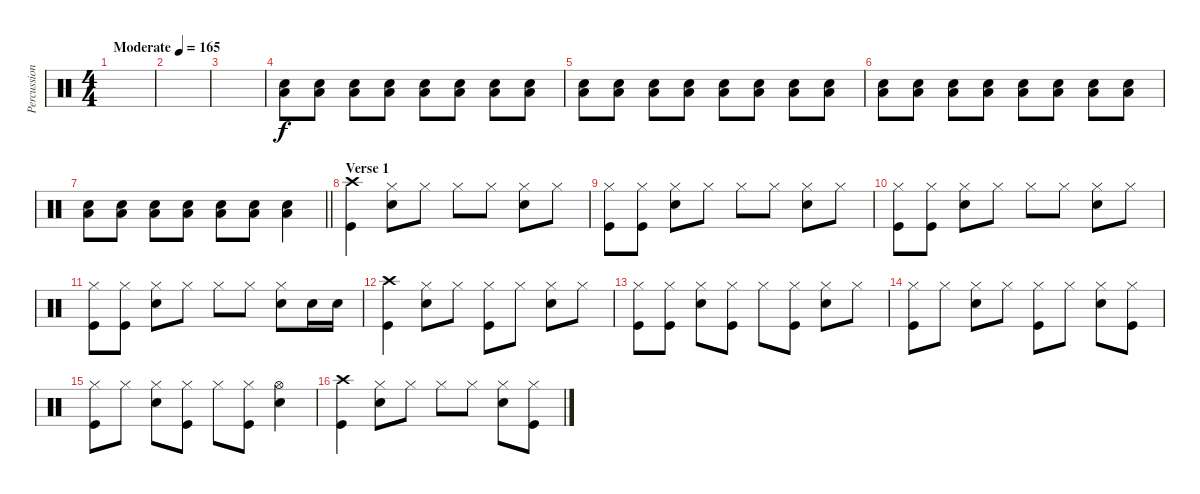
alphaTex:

\track ("Percussion" "Percussion") {instrument percussion}
\staff {score}
\articulation defaults
\ts (4 4)
\tempo (165 "Moderate")
\clef neutral
\ks c
|
|
|
("Low Floor Tom (hit)" "Snare (hit) 2").8 ("Low Floor Tom (hit)" "Snare (hit) 2").8 ("Low Floor Tom (hit)" "Snare (hit) 2").8 ("Low Floor Tom (hit)" "Snare (hit) 2").8 ("Low Floor Tom (hit)" "Snare (hit) 2").8 ("Low Floor Tom (hit)" "Snare (hit) 2").8 ("Low Floor Tom (hit)" "Snare (hit) 2").8 ("Low Floor Tom (hit)" "Snare (hit) 2").8 |
("Low Floor Tom (hit)" "Snare (hit) 2").8 ("Low Floor Tom (hit)" "Snare (hit) 2").8 ("Low Floor Tom (hit)" "Snare (hit) 2").8 ("Low Floor Tom (hit)" "Snare (hit) 2").8 ("Low Floor Tom (hit)" "Snare (hit) 2").8 ("Low Floor Tom (hit)" "Snare (hit) 2").8 ("Low Floor Tom (hit)" "Snare (hit) 2").8 ("Low Floor Tom (hit)" "Snare (hit) 2").8 |
("Low Floor Tom (hit)" "Snare (hit) 2").8 ("Low Floor Tom (hit)" "Snare (hit) 2").8 ("Low Floor Tom (hit)" "Snare (hit) 2").8 ("Low Floor Tom (hit)" "Snare (hit) 2").8 ("Low Floor Tom (hit)" "Snare (hit) 2").8 ("Low Floor Tom (hit)" "Snare (hit) 2").8 ("Low Floor Tom (hit)" "Snare (hit) 2").8 ("Low Floor Tom (hit)" "Snare (hit) 2").8 |
\barLineRight lightlight
("Low Floor Tom (hit)" "Snare (hit) 2").8 ("Low Floor Tom (hit)" "Snare (hit) 2").8 ("Low Floor Tom (hit)" "Snare (hit) 2").8 ("Low Floor Tom (hit)" "Snare (hit) 2").8 ("Low Floor Tom (hit)" "Snare (hit) 2").8 ("Low Floor Tom (hit)" "Snare (hit) 2").8 ("Low Floor Tom (hit)" "Snare (hit) 2").4 |
\section ("" "Verse 1")
("Kick (hit)" "Crash high (hit)").4 ("Hi-Hat (closed)" "Snare (hit) 2").8 "Hi-Hat (closed)".8 "Hi-Hat (closed)".8 "Hi-Hat (closed)".8 ("Hi-Hat (closed)" "Snare (hit) 2").8 "Hi-Hat (closed)".8 |
("Kick (hit)" "Hi-Hat (closed)").8 ("Kick (hit)" "Hi-Hat (closed)").8 ("Hi-Hat (closed)" "Snare (hit) 2").8 "Hi-Hat (closed)".8 "Hi-Hat (closed)".8 "Hi-Hat (closed)".8 ("Hi-Hat (closed)" "Snare (hit) 2").8 "Hi-Hat (closed)".8 |
("Kick (hit)" "Hi-Hat (closed)").8 ("Kick (hit)" "Hi-Hat (closed)").8 ("Hi-Hat (closed)" "Snare (hit) 2").8 "Hi-Hat (closed)".8 "Hi-Hat (closed)".8 "Hi-Hat (closed)".8 ("Hi-Hat (closed)" "Snare (hit) 2").8 "Hi-Hat (closed)".8 |
("Kick (hit)" "Hi-Hat (closed)").8 ("Kick (hit)" "Hi-Hat (closed)").8 ("Hi-Hat (closed)" "Snare (hit) 2").8 "Hi-Hat (closed)".8 "Hi-Hat (closed)".8 "Hi-Hat (closed)".8 ("Hi-Hat (closed)" "Snare (hit) 2").8 "Snare (hit) 2".16 "Snare (hit) 2".16 |
("Kick (hit)" "Crash high (hit)").4 ("Hi-Hat (closed)" "Snare (hit) 2").8 "Hi-Hat (closed)".8 ("Kick (hit)" "Hi-Hat (closed)").8 "Hi-Hat (closed)".8 ("Hi-Hat (closed)" "Snare (hit) 2").8 "Hi-Hat (closed)".8 |
("Kick (hit)" "Hi-Hat (closed)").8 ("Kick (hit)" "Hi-Hat (closed)").8 ("Hi-Hat (closed)" "Snare (hit) 2").8 ("Kick (hit)" "Hi-Hat (closed)").8 "Hi-Hat (closed)".8 ("Kick (hit)" "Hi-Hat (closed)").8 ("Hi-Hat (closed)" "Snare (hit) 2").8 "Hi-Hat (closed)".8 |
("Kick (hit)" "Hi-Hat (closed)").8 "Hi-Hat (closed)".8 ("Hi-Hat (closed)" "Snare (hit) 2").8 "Hi-Hat (closed)".8 ("Kick (hit)" "Hi-Hat (closed)").8 "Hi-Hat (closed)".8 ("Hi-Hat (closed)" "Snare (hit) 2").8 ("Kick (hit)" "Hi-Hat (closed)").8 |
("Kick (hit)" "Hi-Hat (closed)").8 "Hi-Hat (closed)".8 ("Hi-Hat (closed)" "Snare (hit) 2").8 ("Kick (hit)" "Hi-Hat (closed)").8 "Hi-Hat (closed)".8 ("Kick (hit)" "Hi-Hat (closed)").8 ("Hi-Hat (open)" "Snare (hit) 2").4 |
("Kick (hit)" "Crash high (hit)").4 ("Hi-Hat (closed)" "Snare (hit) 2").8 "Hi-Hat (closed)".8 "Hi-Hat (closed)".8 "Hi-Hat (closed)".8 ("Hi-Hat (closed)" "Snare (hit) 2").8 ("Kick (hit)" "Hi-Hat (closed)").8
